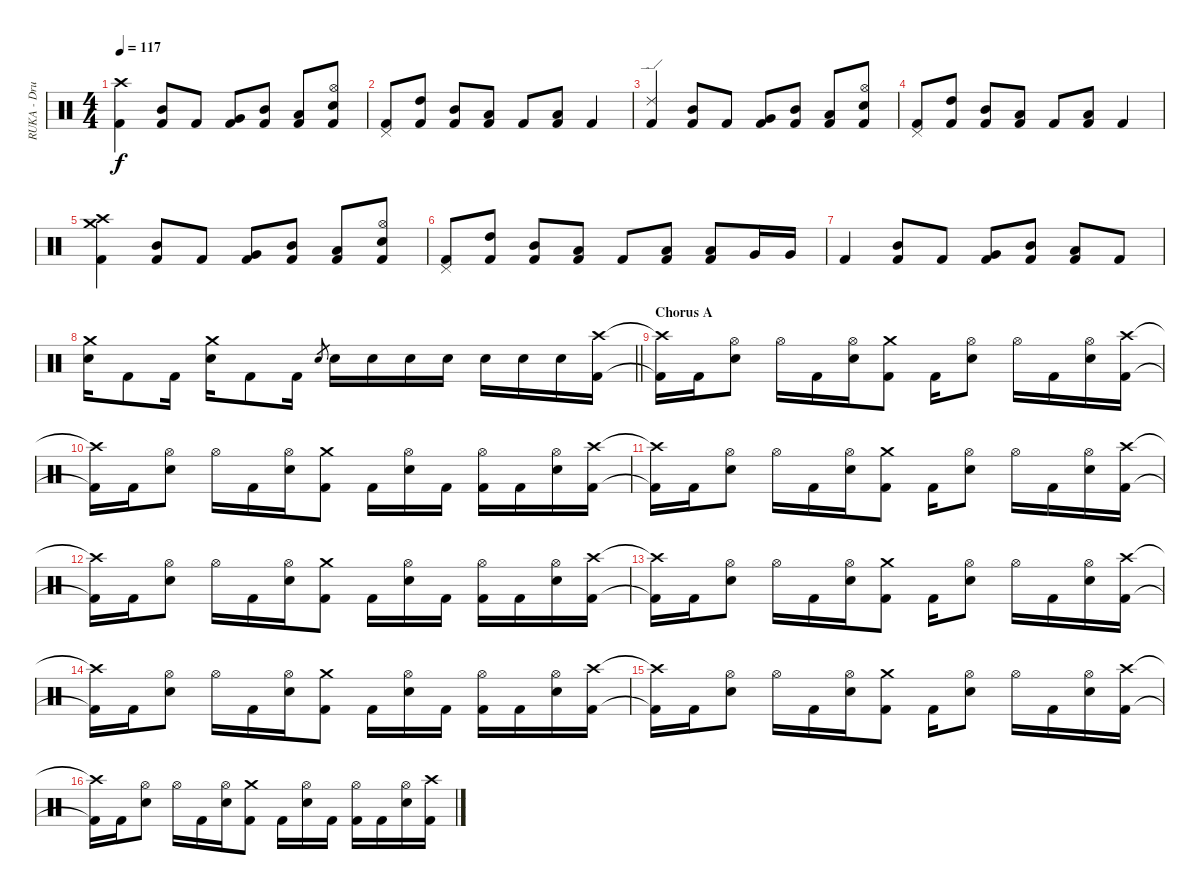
\track ("RUKA - Drums" "RUKA - Dru") {instrument percussion}
\staff {score}
\articulation defaults
\ts (4 4)
\tempo 117
\clef neutral
\ks c
("Kick (hit) 2" "Crash high (hit)").4{dy f} ("Mid Tom (hit)" "Kick (hit) 2").8 "Kick (hit) 2".8 ("Very Low Tom (hit)" "Kick (hit) 2").8 ("Mid Tom (hit)" "Kick (hit) 2").8 ("Low Floor Tom (hit)" "Kick (hit) 2").8 ("Hi-Hat (open)" "Electric Snare (hit)" "Kick (hit) 2").8 |
("Pedal Hi-Hat (hit)" "Kick (hit) 2").8 ("High Tom (hit)" "Kick (hit) 2").8 ("Mid Tom (hit)" "Kick (hit) 2").8 ("Low Floor Tom (hit)" "Kick (hit) 2").8 "Kick (hit) 2".8 ("Low Floor Tom (hit)" "Kick (hit) 2").8 "Kick (hit) 2".4 |
("Kick (hit) 2" "Ride (edge) 2").4 ("Mid Tom (hit)" "Kick (hit) 2").8 "Kick (hit) 2".8 ("Very Low Tom (hit)" "Kick (hit) 2").8 ("Mid Tom (hit)" "Kick (hit) 2").8 ("Low Floor Tom (hit)" "Kick (hit) 2").8 ("Hi-Hat (open)" "Electric Snare (hit)" "Kick (hit) 2").8 |
("Pedal Hi-Hat (hit)" "Kick (hit) 2").8 ("High Tom (hit)" "Kick (hit) 2").8 ("Mid Tom (hit)" "Kick (hit) 2").8 ("Low Floor Tom (hit)" "Kick (hit) 2").8 "Kick (hit) 2".8 ("Low Floor Tom (hit)" "Kick (hit) 2").8 "Kick (hit) 2".4 |
("Kick (hit) 2" "Crash medium (hit)" "Crash high (hit)").4 ("Mid Tom (hit)" "Kick (hit) 2").8 "Kick (hit) 2".8 ("Very Low Tom (hit)" "Kick (hit) 2").8 ("Mid Tom (hit)" "Kick (hit) 2").8 ("Low Floor Tom (hit)" "Kick (hit) 2").8 ("Hi-Hat (open)" "Electric Snare (hit)" "Kick (hit) 2").8 |
("Pedal Hi-Hat (hit)" "Kick (hit) 2").8 ("High Tom (hit)" "Kick (hit) 2").8 ("Mid Tom (hit)" "Kick (hit) 2").8 ("Low Floor Tom (hit)" "Kick (hit) 2").8 "Kick (hit) 2".8 ("Low Floor Tom (hit)" "Kick (hit) 2").8 ("Low Floor Tom (hit)" "Kick (hit) 2").8 "Very Low Tom (hit)".16 "Very Low Tom (hit)".16 |
"Kick (hit) 2".4 ("Mid Tom (hit)" "Kick (hit) 2").8 "Kick (hit) 2".8 ("Very Low Tom (hit)" "Kick (hit) 2").8 ("Mid Tom (hit)" "Kick (hit) 2").8 ("Low Floor Tom (hit)" "Kick (hit) 2").8 "Kick (hit) 2".8 |
\barLineRight lightlight
("Crash medium (hit)" "Electric Snare (hit)").16 "Kick (hit) 2".8 "Kick (hit) 2".16 ("Crash medium (hit)" "Electric Snare (hit)").16 "Kick (hit) 2".8 "Kick (hit) 2".16 "Electric Snare (hit)".8{gr} "Electric Snare (hit)".16 "Electric Snare (hit)".16 "Electric Snare (hit)".16 "Electric Snare (hit)".16 "Electric Snare (hit)".16 "Electric Snare (hit)".16 "Electric Snare (hit)".16 ("Kick (hit) 2" "Crash high (hit)").16 |
\section ("" "Chorus A")
("Kick (hit) 2"{t} "Crash high (hit)"{t}).16 "Kick (hit) 2".16 ("Hi-Hat (open)" "Electric Snare (hit)").8 "Hi-Hat (open)".16 "Kick (hit) 2".16 ("Hi-Hat (open)" "Electric Snare (hit)").16 ("Kick (hit) 2" "Crash medium (hit)").8 "Kick (hit) 2".16 ("Hi-Hat (open)" "Electric Snare (hit)").8 "Hi-Hat (open)".16 "Kick (hit) 2".16 ("Hi-Hat (open)" "Electric Snare (hit)").16 ("Kick (hit) 2" "Crash high (hit)").16 |
("Kick (hit) 2"{t} "Crash high (hit)"{t}).16 "Kick (hit) 2".16 ("Hi-Hat (open)" "Electric Snare (hit)").8 "Hi-Hat (open)".16 "Kick (hit) 2".16 ("Hi-Hat (open)" "Electric Snare (hit)").16 ("Kick (hit) 2" "Crash medium (hit)").8 "Kick (hit) 2".16 ("Hi-Hat (open)" "Electric Snare (hit)").16 "Kick (hit) 2".16 ("Hi-Hat (open)" "Kick (hit) 2").16 "Kick (hit) 2".16 ("Hi-Hat (open)" "Electric Snare (hit)").16 ("Kick (hit) 2" "Crash high (hit)").16 |
("Kick (hit) 2"{t} "Crash high (hit)"{t}).16 "Kick (hit) 2".16 ("Hi-Hat (open)" "Electric Snare (hit)").8 "Hi-Hat (open)".16 "Kick (hit) 2".16 ("Hi-Hat (open)" "Electric Snare (hit)").16 ("Kick (hit) 2" "Crash medium (hit)").8 "Kick (hit) 2".16 ("Hi-Hat (open)" "Electric Snare (hit)").8 "Hi-Hat (open)".16 "Kick (hit) 2".16 ("Hi-Hat (open)" "Electric Snare (hit)").16 ("Kick (hit) 2" "Crash high (hit)").16 |
("Kick (hit) 2"{t} "Crash high (hit)"{t}).16 "Kick (hit) 2".16 ("Hi-Hat (open)" "Electric Snare (hit)").8 "Hi-Hat (open)".16 "Kick (hit) 2".16 ("Hi-Hat (open)" "Electric Snare (hit)").16 ("Kick (hit) 2" "Crash medium (hit)").8 "Kick (hit) 2".16 ("Hi-Hat (open)" "Electric Snare (hit)").16 "Kick (hit) 2".16 ("Hi-Hat (open)" "Kick (hit) 2").16 "Kick (hit) 2".16 ("Hi-Hat (open)" "Electric Snare (hit)").16 ("Kick (hit) 2" "Crash high (hit)").16 |
("Kick (hit) 2"{t} "Crash high (hit)"{t}).16 "Kick (hit) 2".16 ("Hi-Hat (open)" "Electric Snare (hit)").8 "Hi-Hat (open)".16 "Kick (hit) 2".16 ("Hi-Hat (open)" "Electric Snare (hit)").16 ("Kick (hit) 2" "Crash medium (hit)").8 "Kick (hit) 2".16 ("Hi-Hat (open)" "Electric Snare (hit)").8 "Hi-Hat (open)".16 "Kick (hit) 2".16 ("Hi-Hat (open)" "Electric Snare (hit)").16 ("Kick (hit) 2" "Crash high (hit)").16 |
("Kick (hit) 2"{t} "Crash high (hit)"{t}).16 "Kick (hit) 2".16 ("Hi-Hat (open)" "Electric Snare (hit)").8 "Hi-Hat (open)".16 "Kick (hit) 2".16 ("Hi-Hat (open)" "Electric Snare (hit)").16 ("Kick (hit) 2" "Crash medium (hit)").8 "Kick (hit) 2".16 ("Hi-Hat (open)" "Electric Snare (hit)").16 "Kick (hit) 2".16 ("Hi-Hat (open)" "Kick (hit) 2").16 "Kick (hit) 2".16 ("Hi-Hat (open)" "Electric Snare (hit)").16 ("Kick (hit) 2" "Crash high (hit)").16 |
("Kick (hit) 2"{t} "Crash high (hit)"{t}).16 "Kick (hit) 2".16 ("Hi-Hat (open)" "Electric Snare (hit)").8 "Hi-Hat (open)".16 "Kick (hit) 2".16 ("Hi-Hat (open)" "Electric Snare (hit)").16 ("Kick (hit) 2" "Crash medium (hit)").8 "Kick (hit) 2".16 ("Hi-Hat (open)" "Electric Snare (hit)").8 "Hi-Hat (open)".16 "Kick (hit) 2".16 ("Hi-Hat (open)" "Electric Snare (hit)").16 ("Kick (hit) 2" "Crash high (hit)").16 |
("Kick (hit) 2"{t} "Crash high (hit)"{t}).16 "Kick (hit) 2".16 ("Hi-Hat (open)" "Electric Snare (hit)").8 "Hi-Hat (open)".16 "Kick (hit) 2".16 ("Hi-Hat (open)" "Electric Snare (hit)").16 ("Kick (hit) 2" "Crash medium (hit)").8 "Kick (hit) 2".16 ("Hi-Hat (open)" "Electric Snare (hit)").16 "Kick (hit) 2".16 ("Hi-Hat (open)" "Kick (hit) 2").16 "Kick (hit) 2".16 ("Hi-Hat (open)" "Electric Snare (hit)").16 ("Kick (hit) 2" "Crash high (hit)").16
